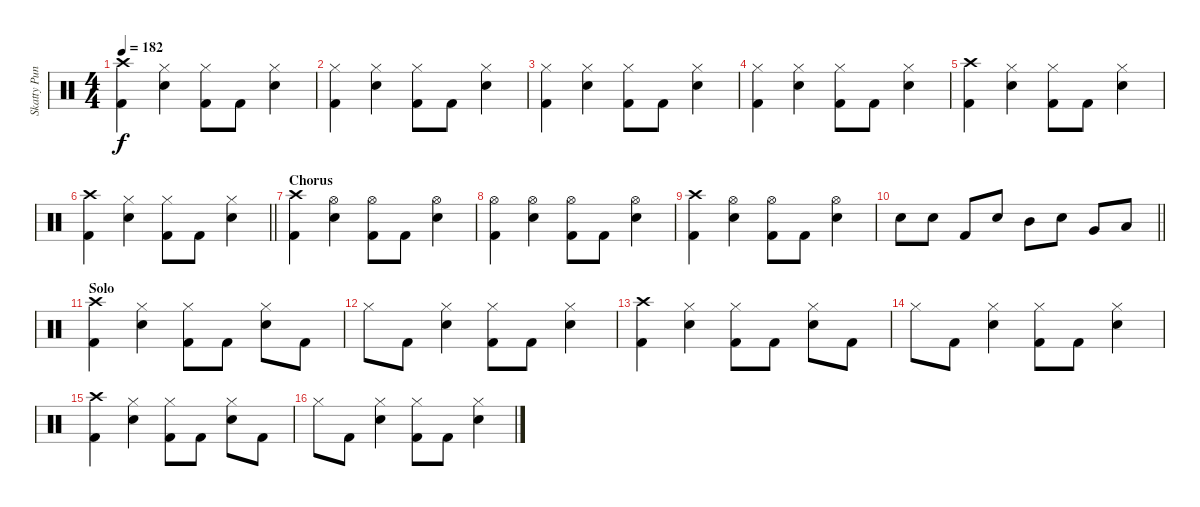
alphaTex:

\track ("Skatty Punk Rock" "Skatty Pun") {instrument percussion}
\staff {score}
\articulation defaults
\ts (4 4)
\tempo 182
\clef neutral
\ks c
("Kick (hit) 2" "Crash high (hit)").4{dy f} ("Snare (hit) 2" "Hi-Hat (closed)").4 ("Kick (hit) 2" "Hi-Hat (closed)").8 "Kick (hit) 2".8 ("Snare (hit) 2" "Hi-Hat (closed)").4 |
("Kick (hit) 2" "Hi-Hat (closed)").4 ("Snare (hit) 2" "Hi-Hat (closed)").4 ("Kick (hit) 2" "Hi-Hat (closed)").8 "Kick (hit) 2".8 ("Snare (hit) 2" "Hi-Hat (closed)").4 |
("Kick (hit) 2" "Hi-Hat (closed)").4 ("Snare (hit) 2" "Hi-Hat (closed)").4 ("Kick (hit) 2" "Hi-Hat (closed)").8 "Kick (hit) 2".8 ("Snare (hit) 2" "Hi-Hat (closed)").4 |
("Kick (hit) 2" "Hi-Hat (closed)").4 ("Snare (hit) 2" "Hi-Hat (closed)").4 ("Kick (hit) 2" "Hi-Hat (closed)").8 "Kick (hit) 2".8 ("Snare (hit) 2" "Hi-Hat (closed)").4 |
("Kick (hit) 2" "Crash high (hit)").4 ("Snare (hit) 2" "Hi-Hat (closed)").4 ("Kick (hit) 2" "Hi-Hat (closed)").8 "Kick (hit) 2".8 ("Snare (hit) 2" "Hi-Hat (closed)").4 |
\barLineRight lightlight
("Kick (hit) 2" "Crash high (hit)").4 ("Snare (hit) 2" "Hi-Hat (closed)").4 ("Kick (hit) 2" "Hi-Hat (closed)").8 "Kick (hit) 2".8 ("Snare (hit) 2" "Hi-Hat (closed)").4 |
\section ("" "Chorus")
("Kick (hit) 2" "Crash high (hit)").4 ("Snare (hit) 2" "Hi-Hat (open)").4 ("Kick (hit) 2" "Hi-Hat (open)").8 "Kick (hit) 2".8 ("Snare (hit) 2" "Hi-Hat (open)").4 |
("Kick (hit) 2" "Hi-Hat (open)").4 ("Snare (hit) 2" "Hi-Hat (open)").4 ("Kick (hit) 2" "Hi-Hat (open)").8 "Kick (hit) 2".8 ("Snare (hit) 2" "Hi-Hat (open)").4 |
("Kick (hit) 2" "Crash high (hit)").4 ("Snare (hit) 2" "Hi-Hat (open)").4 ("Kick (hit) 2" "Hi-Hat (open)").8 "Kick (hit) 2".8 ("Snare (hit) 2" "Hi-Hat (open)").4 |
\barLineRight lightlight "Snare (hit) 2".8 "Snare (hit) 2".8 "Kick (hit) 2".8 "Snare (hit) 2".8 "Mid Tom (hit)".8 "Snare (hit) 2".8 "Very Low Tom (hit)".8 "Low Floor Tom (hit)".8
|
\section ("" "Solo")
("Kick (hit) 2" "Crash high (hit)").4 ("Snare (hit) 2" "Hi-Hat (closed)").4 ("Kick (hit) 2" "Hi-Hat (closed)").8 "Kick (hit) 2".8 ("Snare (hit) 2" "Hi-Hat (closed)").8 "Kick (hit) 2".8 |
"Hi-Hat (closed)".8 "Kick (hit) 2".8 ("Snare (hit) 2" "Hi-Hat (closed)").4 ("Kick (hit) 2" "Hi-Hat (closed)").8 "Kick (hit) 2".8 ("Snare (hit) 2" "Hi-Hat (closed)").4 |
("Kick (hit) 2" "Crash high (hit)").4 ("Snare (hit) 2" "Hi-Hat (closed)").4 ("Kick (hit) 2" "Hi-Hat (closed)").8 "Kick (hit) 2".8 ("Snare (hit) 2" "Hi-Hat (closed)").8 "Kick (hit) 2".8 |
"Hi-Hat (closed)".8 "Kick (hit) 2".8 ("Snare (hit) 2" "Hi-Hat (closed)").4 ("Kick (hit) 2" "Hi-Hat (closed)").8 "Kick (hit) 2".8 ("Snare (hit) 2" "Hi-Hat (closed)").4 |
("Kick (hit) 2" "Crash high (hit)").4 ("Snare (hit) 2" "Hi-Hat (closed)").4 ("Kick (hit) 2" "Hi-Hat (closed)").8 "Kick (hit) 2".8 ("Snare (hit) 2" "Hi-Hat (closed)").8 "Kick (hit) 2".8 |
"Hi-Hat (closed)".8 "Kick (hit) 2".8 ("Snare (hit) 2" "Hi-Hat (closed)").4 ("Kick (hit) 2" "Hi-Hat (closed)").8 "Kick (hit) 2".8 ("Snare (hit) 2" "Hi-Hat (closed)").4
